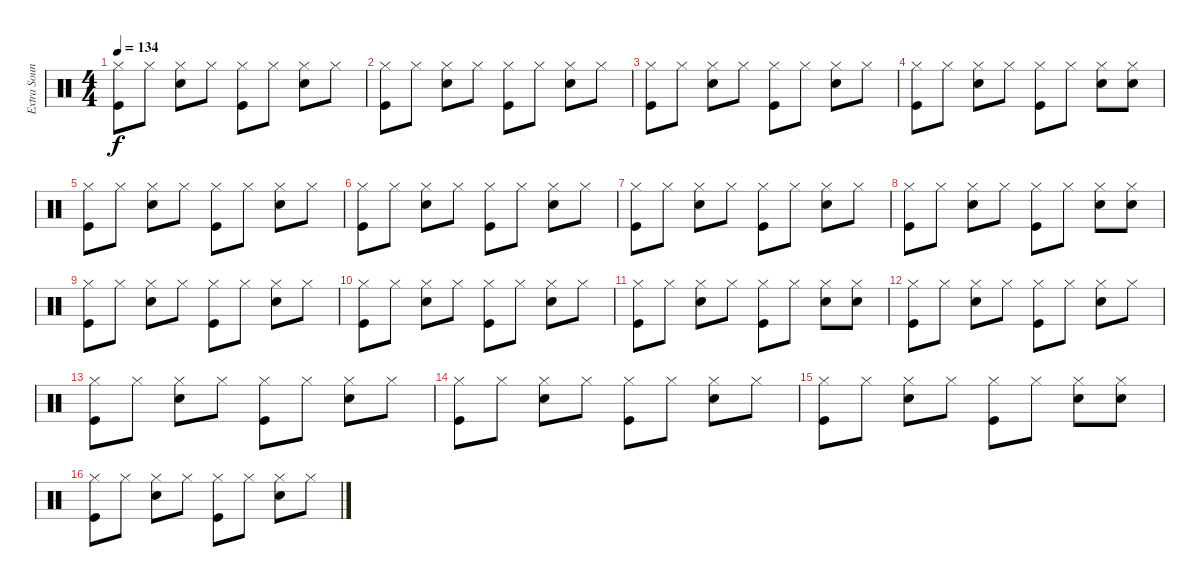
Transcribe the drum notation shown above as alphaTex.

\track ("Extra Sounds" "Extra Soun") {instrument percussion}
\staff {score}
\articulation defaults
\ts (4 4)
\tempo 134
\clef neutral
\ks c
("Hi-Hat (closed)" "Kick (hit)").8{dy f} "Hi-Hat (closed)".8 ("Hi-Hat (closed)" "Snare (hit) 2").8 "Hi-Hat (closed)".8 ("Hi-Hat (closed)" "Kick (hit)").8 "Hi-Hat (closed)".8 ("Hi-Hat (closed)" "Snare (hit) 2").8 "Hi-Hat (closed)".8 |
("Hi-Hat (closed)" "Kick (hit)").8 "Hi-Hat (closed)".8 ("Hi-Hat (closed)" "Snare (hit) 2").8 "Hi-Hat (closed)".8 ("Hi-Hat (closed)" "Kick (hit)").8 "Hi-Hat (closed)".8 ("Hi-Hat (closed)" "Snare (hit) 2").8 "Hi-Hat (closed)".8 |
("Hi-Hat (closed)" "Kick (hit)").8 "Hi-Hat (closed)".8 ("Hi-Hat (closed)" "Snare (hit) 2").8 "Hi-Hat (closed)".8 ("Hi-Hat (closed)" "Kick (hit)").8 "Hi-Hat (closed)".8 ("Hi-Hat (closed)" "Snare (hit) 2").8 "Hi-Hat (closed)".8 |
("Hi-Hat (closed)" "Kick (hit)").8 "Hi-Hat (closed)".8 ("Hi-Hat (closed)" "Snare (hit) 2").8 "Hi-Hat (closed)".8 ("Hi-Hat (closed)" "Kick (hit)").8 "Hi-Hat (closed)".8 ("Hi-Hat (closed)" "Snare (hit) 2").8 ("Hi-Hat (closed)" "Snare (hit) 2").8 |
("Hi-Hat (closed)" "Kick (hit)").8 "Hi-Hat (closed)".8 ("Hi-Hat (closed)" "Snare (hit) 2").8 "Hi-Hat (closed)".8 ("Hi-Hat (closed)" "Kick (hit)").8 "Hi-Hat (closed)".8 ("Hi-Hat (closed)" "Snare (hit) 2").8 "Hi-Hat (closed)".8 |
("Hi-Hat (closed)" "Kick (hit)").8 "Hi-Hat (closed)".8 ("Hi-Hat (closed)" "Snare (hit) 2").8 "Hi-Hat (closed)".8 ("Hi-Hat (closed)" "Kick (hit)").8 "Hi-Hat (closed)".8 ("Hi-Hat (closed)" "Snare (hit) 2").8 "Hi-Hat (closed)".8 |
("Hi-Hat (closed)" "Kick (hit)").8 "Hi-Hat (closed)".8 ("Hi-Hat (closed)" "Snare (hit) 2").8 "Hi-Hat (closed)".8 ("Hi-Hat (closed)" "Kick (hit)").8 "Hi-Hat (closed)".8 ("Hi-Hat (closed)" "Snare (hit) 2").8 "Hi-Hat (closed)".8 |
("Hi-Hat (closed)" "Kick (hit)").8 "Hi-Hat (closed)".8 ("Hi-Hat (closed)" "Snare (hit) 2").8 "Hi-Hat (closed)".8 ("Hi-Hat (closed)" "Kick (hit)").8 "Hi-Hat (closed)".8 ("Hi-Hat (closed)" "Snare (hit) 2").8 ("Hi-Hat (closed)" "Snare (hit) 2").8 |
("Hi-Hat (closed)" "Kick (hit)").8 "Hi-Hat (closed)".8 ("Hi-Hat (closed)" "Snare (hit) 2").8 "Hi-Hat (closed)".8 ("Hi-Hat (closed)" "Kick (hit)").8 "Hi-Hat (closed)".8 ("Hi-Hat (closed)" "Snare (hit) 2").8 "Hi-Hat (closed)".8 |
("Hi-Hat (closed)" "Kick (hit)").8 "Hi-Hat (closed)".8 ("Hi-Hat (closed)" "Snare (hit) 2").8 "Hi-Hat (closed)".8 ("Hi-Hat (closed)" "Kick (hit)").8 "Hi-Hat (closed)".8 ("Hi-Hat (closed)" "Snare (hit) 2").8 "Hi-Hat (closed)".8 |
("Hi-Hat (closed)" "Kick (hit)").8 "Hi-Hat (closed)".8 ("Hi-Hat (closed)" "Snare (hit) 2").8 "Hi-Hat (closed)".8 ("Hi-Hat (closed)" "Kick (hit)").8 "Hi-Hat (closed)".8 ("Hi-Hat (closed)" "Snare (hit) 2").8 ("Hi-Hat (closed)" "Snare (hit) 2").8 |
("Hi-Hat (closed)" "Kick (hit)").8 "Hi-Hat (closed)".8 ("Hi-Hat (closed)" "Snare (hit) 2").8 "Hi-Hat (closed)".8 ("Hi-Hat (closed)" "Kick (hit)").8 "Hi-Hat (closed)".8 ("Hi-Hat (closed)" "Snare (hit) 2").8 "Hi-Hat (closed)".8 |
("Hi-Hat (closed)" "Kick (hit)").8 "Hi-Hat (closed)".8 ("Hi-Hat (closed)" "Snare (hit) 2").8 "Hi-Hat (closed)".8 ("Hi-Hat (closed)" "Kick (hit)").8 "Hi-Hat (closed)".8 ("Hi-Hat (closed)" "Snare (hit) 2").8 "Hi-Hat (closed)".8 |
("Hi-Hat (closed)" "Kick (hit)").8 "Hi-Hat (closed)".8 ("Hi-Hat (closed)" "Snare (hit) 2").8 "Hi-Hat (closed)".8 ("Hi-Hat (closed)" "Kick (hit)").8 "Hi-Hat (closed)".8 ("Hi-Hat (closed)" "Snare (hit) 2").8 "Hi-Hat (closed)".8 |
("Hi-Hat (closed)" "Kick (hit)").8 "Hi-Hat (closed)".8 ("Hi-Hat (closed)" "Snare (hit) 2").8 "Hi-Hat (closed)".8 ("Hi-Hat (closed)" "Kick (hit)").8 "Hi-Hat (closed)".8 ("Hi-Hat (closed)" "Snare (hit) 2").8 ("Hi-Hat (closed)" "Snare (hit) 2").8 |
("Hi-Hat (closed)" "Kick (hit)").8 "Hi-Hat (closed)".8 ("Hi-Hat (closed)" "Snare (hit) 2").8 "Hi-Hat (closed)".8 ("Hi-Hat (closed)" "Kick (hit)").8 "Hi-Hat (closed)".8 ("Hi-Hat (closed)" "Snare (hit) 2").8 "Hi-Hat (closed)".8
